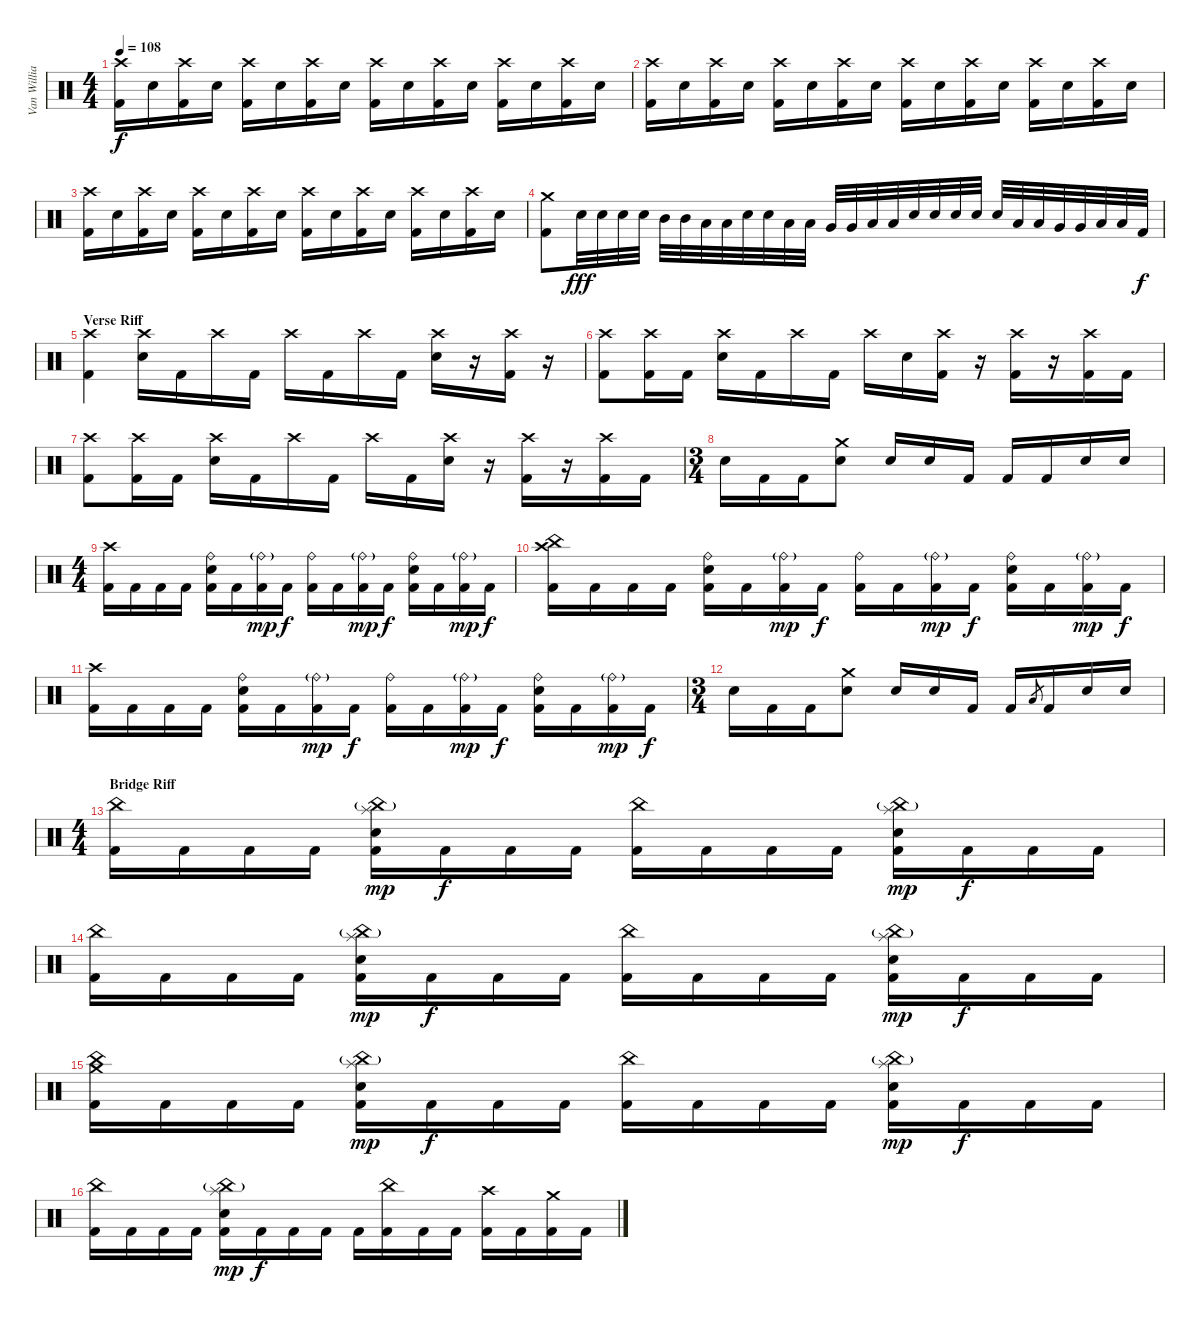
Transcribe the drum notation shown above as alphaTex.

\track ("Van Williams" "Van Willia") {instrument percussion}
\staff {score}
\articulation defaults
\ts (4 4)
\tempo 108
\clef neutral
\ks c
("Crash high (hit)" "Kick (hit) 2").16{dy f} "Snare (hit) 2".16 ("Crash high (hit)" "Kick (hit) 2").16 "Snare (hit) 2".16 ("Crash high (hit)" "Kick (hit) 2").16 "Snare (hit) 2".16 ("Crash high (hit)" "Kick (hit) 2").16 "Snare (hit) 2".16 ("Crash high (hit)" "Kick (hit) 2").16 "Snare (hit) 2".16 ("Crash high (hit)" "Kick (hit) 2").16 "Snare (hit) 2".16 ("Crash high (hit)" "Kick (hit) 2").16 "Snare (hit) 2".16 ("Crash high (hit)" "Kick (hit) 2").16 "Snare (hit) 2".16 |
("Crash high (hit)" "Kick (hit) 2").16 "Snare (hit) 2".16 ("Crash high (hit)" "Kick (hit) 2").16 "Snare (hit) 2".16 ("Crash high (hit)" "Kick (hit) 2").16 "Snare (hit) 2".16 ("Crash high (hit)" "Kick (hit) 2").16 "Snare (hit) 2".16 ("Crash high (hit)" "Kick (hit) 2").16 "Snare (hit) 2".16 ("Crash high (hit)" "Kick (hit) 2").16 "Snare (hit) 2".16 ("Crash high (hit)" "Kick (hit) 2").16 "Snare (hit) 2".16 ("Crash high (hit)" "Kick (hit) 2").16 "Snare (hit) 2".16 |
("Crash high (hit)" "Kick (hit) 2").16 "Snare (hit) 2".16 ("Crash high (hit)" "Kick (hit) 2").16 "Snare (hit) 2".16 ("Crash high (hit)" "Kick (hit) 2").16 "Snare (hit) 2".16 ("Crash high (hit)" "Kick (hit) 2").16 "Snare (hit) 2".16 ("Crash high (hit)" "Kick (hit) 2").16 "Snare (hit) 2".16 ("Crash high (hit)" "Kick (hit) 2").16 "Snare (hit) 2".16 ("Crash high (hit)" "Kick (hit) 2").16 "Snare (hit) 2".16 ("Crash high (hit)" "Kick (hit) 2").16 "Snare (hit) 2".16 |
("Crash medium (hit)" "Kick (hit) 2").8 "Snare (hit) 2".32{dy fff} "Snare (hit) 2".32 "Snare (hit) 2".32 "Snare (hit) 2".32 "Mid Tom (hit)".32 "Mid Tom (hit)".32 "Low Tom (hit)".32 "Low Tom (hit)".32 "Snare (hit) 2".32 "Snare (hit) 2".32 "Low Tom (hit)".32 "Low Tom (hit)".32 "Very Low Tom (hit)".32 "Very Low Tom (hit)".32 "Low Floor Tom (hit)".32 "Low Floor Tom (hit)".32 "Snare (hit) 2".32 "Snare (hit) 2".32 "Snare (hit) 2".32 "Snare (hit) 2".32 "Snare (hit) 2".32 "Low Tom (hit)".32 "Low Tom (hit)".32 "Very Low Tom (hit)".32 "Very Low Tom (hit)".32 "Low Floor Tom (hit)".32 "Low Floor Tom (hit)".32 "Kick (hit) 2".32{dy f} |
\section ("" "Verse Riff")
("Crash high (hit)" "Kick (hit) 2").4 ("Crash high (hit)" "Snare (hit) 2").16 "Kick (hit) 2".16 "Crash high (hit)".16 "Kick (hit) 2".16 "Crash high (hit)".16 "Kick (hit) 2".16 "Crash high (hit)".16 "Kick (hit) 2".16 ("Crash high (hit)" "Snare (hit) 2").16 r.16 ("Crash high (hit)" "Kick (hit) 2").16 r.16 |
("Crash high (hit)" "Kick (hit) 2").8 ("Crash high (hit)" "Kick (hit) 2").16 "Kick (hit) 2".16 ("Crash high (hit)" "Snare (hit) 2").16 "Kick (hit) 2".16 "Crash high (hit)".16 "Kick (hit) 2".16 "Crash high (hit)".16 "Snare (hit) 2".16 ("Crash high (hit)" "Kick (hit) 2").16 r.16 ("Crash high (hit)" "Kick (hit) 2").16 r.16 ("Crash high (hit)" "Kick (hit) 2").16 "Kick (hit) 2".16 |
("Crash high (hit)" "Kick (hit) 2").8 ("Crash high (hit)" "Kick (hit) 2").16 "Kick (hit) 2".16 ("Crash high (hit)" "Snare (hit) 2").16 "Kick (hit) 2".16 "Crash high (hit)".16 "Kick (hit) 2".16 "Crash high (hit)".16 "Kick (hit) 2".16 ("Crash high (hit)" "Snare (hit) 2").16 r.16 ("Crash high (hit)" "Kick (hit) 2").16 r.16 ("Crash high (hit)" "Kick (hit) 2").16 "Kick (hit) 2".16 |
\ts (3 4)
"Snare (hit) 2".16 "Kick (hit) 2".16 "Kick (hit) 2".16 ("Crash medium (hit)" "Snare (hit) 2").8 "Snare (hit) 2".16 "Snare (hit) 2".16 "Kick (hit) 2".16 "Kick (hit) 2".16 "Kick (hit) 2".16 "Electric Snare (hit)".16 "Snare (hit) 2".16 |
\ts (4 4)
("Crash high (hit)" "Kick (hit) 2").16 "Kick (hit) 2".16 "Kick (hit) 2".16 "Kick (hit) 2".16 ("Ride (bell)" "Electric Snare (hit)" "Kick (hit) 2").16 "Kick (hit) 2".16 ("Ride (bell)"{g} "Kick (hit) 2").16{dy mp} "Kick (hit) 2".16{dy f} ("Ride (bell)" "Kick (hit) 2").16 "Kick (hit) 2".16 ("Ride (bell)"{g} "Kick (hit) 2").16{dy mp} "Kick (hit) 2".16{dy f} ("Ride (bell)" "Electric Snare (hit)" "Kick (hit) 2").16 "Kick (hit) 2".16 ("Ride (bell)"{g} "Kick (hit) 2").16{dy mp} "Kick (hit) 2".16{dy f} |
("Crash high (hit)" "China (hit)" "Kick (hit) 2").16 "Kick (hit) 2".16 "Kick (hit) 2".16 "Kick (hit) 2".16 ("Ride (bell)" "Electric Snare (hit)" "Kick (hit) 2").16 "Kick (hit) 2".16 ("Ride (bell)"{g} "Kick (hit) 2").16{dy mp} "Kick (hit) 2".16{dy f} ("Ride (bell)" "Kick (hit) 2").16 "Kick (hit) 2".16 ("Ride (bell)"{g} "Kick (hit) 2").16{dy mp} "Kick (hit) 2".16{dy f} ("Ride (bell)" "Electric Snare (hit)" "Kick (hit) 2").16 "Kick (hit) 2".16 ("Ride (bell)"{g} "Kick (hit) 2").16{dy mp} "Kick (hit) 2".16{dy f} |
("Crash high (hit)" "Kick (hit) 2").16 "Kick (hit) 2".16 "Kick (hit) 2".16 "Kick (hit) 2".16 ("Ride (bell)" "Electric Snare (hit)" "Kick (hit) 2").16 "Kick (hit) 2".16 ("Ride (bell)"{g} "Kick (hit) 2").16{dy mp} "Kick (hit) 2".16{dy f} ("Ride (bell)" "Kick (hit) 2").16 "Kick (hit) 2".16 ("Ride (bell)"{g} "Kick (hit) 2").16{dy mp} "Kick (hit) 2".16{dy f} ("Ride (bell)" "Electric Snare (hit)" "Kick (hit) 2").16 "Kick (hit) 2".16 ("Ride (bell)"{g} "Kick (hit) 2").16{dy mp} "Kick (hit) 2".16{dy f} |
\ts (3 4)
"Snare (hit) 2".16 "Kick (hit) 2".16 "Kick (hit) 2".16 ("Crash medium (hit)" "Snare (hit) 2").8 "Snare (hit) 2".16 "Snare (hit) 2".16 "Kick (hit) 2".16 "Kick (hit) 2".16 "Low Tom (hit)".8{gr} "Kick (hit) 2".16 "Electric Snare (hit)".16 "Snare (hit) 2".16 |
\ts (4 4)
\section ("" "Bridge Riff")
("China (hit)" "Kick (hit) 2").16 "Kick (hit) 2".16 "Kick (hit) 2".16 "Kick (hit) 2".16 ("Splash (hit)" "China (hit)"{g} "Electric Snare (hit)" "Kick (hit) 2").16{dy mp} "Kick (hit) 2".16{dy f} "Kick (hit) 2".16 "Kick (hit) 2".16 ("China (hit)" "Kick (hit) 2").16 "Kick (hit) 2".16 "Kick (hit) 2".16 "Kick (hit) 2".16 ("Splash (hit)" "China (hit)"{g} "Electric Snare (hit)" "Kick (hit) 2").16{dy mp} "Kick (hit) 2".16{dy f} "Kick (hit) 2".16 "Kick (hit) 2".16 |
("China (hit)" "Kick (hit) 2").16 "Kick (hit) 2".16 "Kick (hit) 2".16 "Kick (hit) 2".16 ("Splash (hit)" "China (hit)"{g} "Electric Snare (hit)" "Kick (hit) 2").16{dy mp} "Kick (hit) 2".16{dy f} "Kick (hit) 2".16 "Kick (hit) 2".16 ("China (hit)" "Kick (hit) 2").16 "Kick (hit) 2".16 "Kick (hit) 2".16 "Kick (hit) 2".16 ("Splash (hit)" "China (hit)"{g} "Electric Snare (hit)" "Kick (hit) 2").16{dy mp} "Kick (hit) 2".16{dy f} "Kick (hit) 2".16 "Kick (hit) 2".16 |
("China (hit)" "Crash medium (hit)" "Kick (hit) 2").16 "Kick (hit) 2".16 "Kick (hit) 2".16 "Kick (hit) 2".16 ("Splash (hit)" "China (hit)"{g} "Electric Snare (hit)" "Kick (hit) 2").16{dy mp} "Kick (hit) 2".16{dy f} "Kick (hit) 2".16 "Kick (hit) 2".16 ("China (hit)" "Kick (hit) 2").16 "Kick (hit) 2".16 "Kick (hit) 2".16 "Kick (hit) 2".16 ("Splash (hit)" "China (hit)"{g} "Electric Snare (hit)" "Kick (hit) 2").16{dy mp} "Kick (hit) 2".16{dy f} "Kick (hit) 2".16 "Kick (hit) 2".16 |
("China (hit)" "Kick (hit) 2").16 "Kick (hit) 2".16 "Kick (hit) 2".16 "Kick (hit) 2".16 ("Splash (hit)" "China (hit)"{g} "Electric Snare (hit)" "Kick (hit) 2").16{dy mp} "Kick (hit) 2".16{dy f} "Kick (hit) 2".16 "Kick (hit) 2".16 "Kick (hit) 2".16 ("China (hit)" "Kick (hit) 2").16 "Kick (hit) 2".16 "Kick (hit) 2".16 ("Crash high (hit)" "Kick (hit) 2").16 "Kick (hit) 2".16 ("Crash medium (hit)" "Kick (hit) 2").16 "Kick (hit) 2".16
